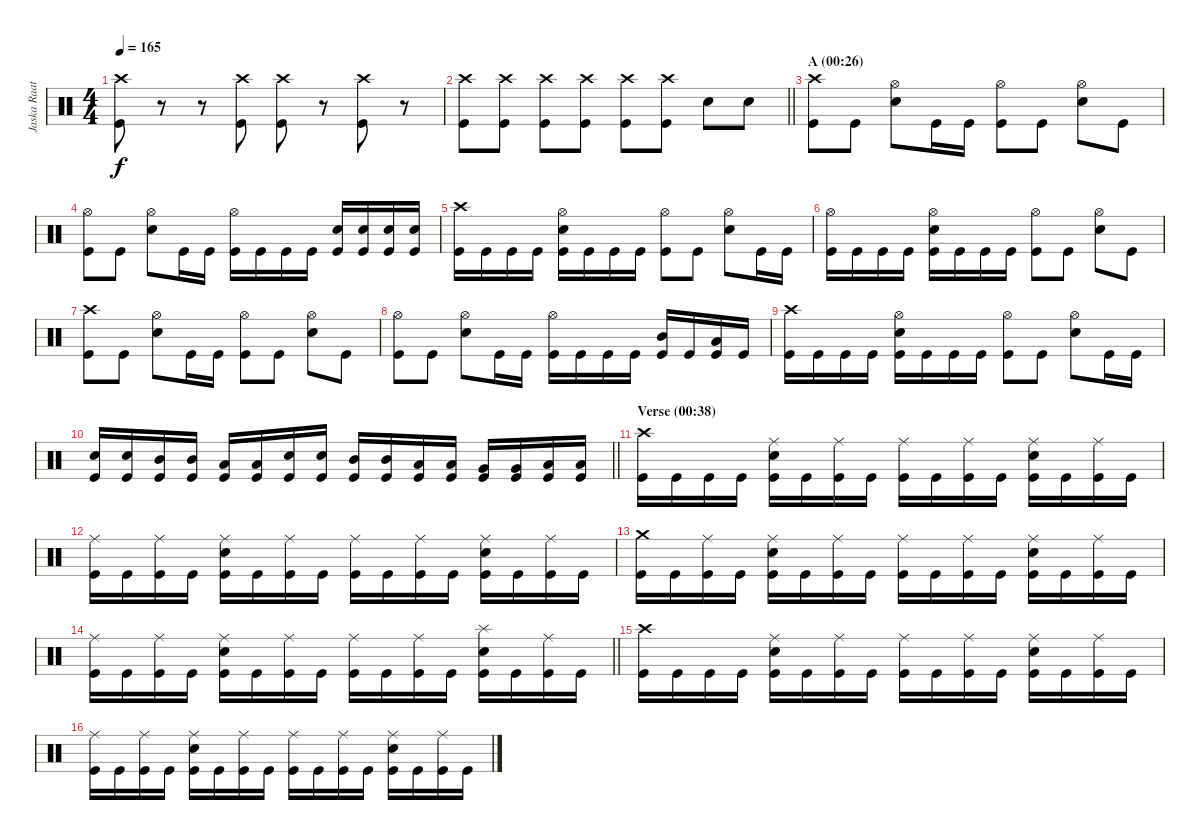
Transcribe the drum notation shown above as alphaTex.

\track ("Jaska Raatikainen" "Jaska Raat") {instrument percussion}
\staff {score}
\articulation defaults
\ts (4 4)
\tempo 165
\clef neutral
\ks c
("Crash high (hit)" "Kick (hit)").8{dy f} r.8 r.8 ("Crash high (hit)" "Kick (hit)").8 ("Crash high (hit)" "Kick (hit)").8 r.8 ("Crash high (hit)" "Kick (hit)").8 r.8 |
\barLineRight lightlight
("Crash high (hit)" "Kick (hit)").8 ("Crash high (hit)" "Kick (hit)").8 ("Crash high (hit)" "Kick (hit)").8 ("Crash high (hit)" "Kick (hit)").8 ("Crash high (hit)" "Kick (hit)").8 ("Crash high (hit)" "Kick (hit)").8 "Electric Snare (hit)".8 "Electric Snare (hit)".8 |
\section ("" "A (00:26)")
("Crash high (hit)" "Kick (hit)").8 "Kick (hit)".8 ("Hi-Hat (open)" "Electric Snare (hit)").8 "Kick (hit)".16 "Kick (hit)".16 ("Hi-Hat (open)" "Kick (hit)").8 "Kick (hit)".8 ("Hi-Hat (open)" "Electric Snare (hit)").8 "Kick (hit)".8 |
("Hi-Hat (open)" "Kick (hit)").8 "Kick (hit)".8 ("Hi-Hat (open)" "Electric Snare (hit)").8 "Kick (hit)".16 "Kick (hit)".16 ("Hi-Hat (open)" "Kick (hit)").16 "Kick (hit)".16 "Kick (hit)".16 "Kick (hit)".16 ("Electric Snare (hit)" "Kick (hit)").16 ("Electric Snare (hit)" "Kick (hit)").16 ("Electric Snare (hit)" "Kick (hit)").16 ("Electric Snare (hit)" "Kick (hit)").16 |
("Crash high (hit)" "Kick (hit)").16 "Kick (hit)".16 "Kick (hit)".16 "Kick (hit)".16 ("Hi-Hat (open)" "Electric Snare (hit)" "Kick (hit)").16 "Kick (hit)".16 "Kick (hit)".16 "Kick (hit)".16 ("Hi-Hat (open)" "Kick (hit)").8 "Kick (hit)".8 ("Hi-Hat (open)" "Electric Snare (hit)").8 "Kick (hit)".16 "Kick (hit)".16 |
("Hi-Hat (open)" "Kick (hit)").16 "Kick (hit)".16 "Kick (hit)".16 "Kick (hit)".16 ("Hi-Hat (open)" "Electric Snare (hit)" "Kick (hit)").16 "Kick (hit)".16 "Kick (hit)".16 "Kick (hit)".16 ("Hi-Hat (open)" "Kick (hit)").8 "Kick (hit)".8 ("Hi-Hat (open)" "Electric Snare (hit)").8 "Kick (hit)".8 |
("Crash high (hit)" "Kick (hit)").8 "Kick (hit)".8 ("Hi-Hat (open)" "Electric Snare (hit)").8 "Kick (hit)".16 "Kick (hit)".16 ("Hi-Hat (open)" "Kick (hit)").8 "Kick (hit)".8 ("Hi-Hat (open)" "Electric Snare (hit)").8 "Kick (hit)".8 |
("Hi-Hat (open)" "Kick (hit)").8 "Kick (hit)".8 ("Hi-Hat (open)" "Electric Snare (hit)").8 "Kick (hit)".16 "Kick (hit)".16 ("Hi-Hat (open)" "Kick (hit)").16 "Kick (hit)".16 "Kick (hit)".16 "Kick (hit)".16 ("Mid Tom (hit)" "Kick (hit)").16 "Kick (hit)".16 ("Low Tom (hit)" "Kick (hit)").16 "Kick (hit)".16 |
("Crash high (hit)" "Kick (hit)").16 "Kick (hit)".16 "Kick (hit)".16 "Kick (hit)".16 ("Hi-Hat (open)" "Electric Snare (hit)" "Kick (hit)").16 "Kick (hit)".16 "Kick (hit)".16 "Kick (hit)".16 ("Hi-Hat (open)" "Kick (hit)").8 "Kick (hit)".8 ("Hi-Hat (open)" "Electric Snare (hit)").8 "Kick (hit)".16 "Kick (hit)".16 |
\barLineRight lightlight
("Electric Snare (hit)" "Kick (hit)").16 ("Electric Snare (hit)" "Kick (hit)").16 ("Mid Tom (hit)" "Kick (hit)").16 ("Mid Tom (hit)" "Kick (hit)").16 ("Low Tom (hit)" "Kick (hit)").16 ("Low Tom (hit)" "Kick (hit)").16 ("Electric Snare (hit)" "Kick (hit)").16 ("Electric Snare (hit)" "Kick (hit)").16 ("Mid Tom (hit)" "Kick (hit)").16 ("Mid Tom (hit)" "Kick (hit)").16 ("Low Tom (hit)" "Kick (hit)").16 ("Low Tom (hit)" "Kick (hit)").16 ("Very Low Tom (hit)" "Kick (hit)").16 ("Very Low Tom (hit)" "Kick (hit)").16 ("Low Floor Tom (hit)" "Kick (hit)").16 ("Low Floor Tom (hit)" "Kick (hit)").16 |
\section ("" "Verse (00:38)")
("Crash high (hit)" "Kick (hit)").16 "Kick (hit)".16 "Kick (hit)".16 "Kick (hit)".16 ("Ride (middle)" "Electric Snare (hit)" "Kick (hit)").16 "Kick (hit)".16 ("Ride (middle)" "Kick (hit)").16 "Kick (hit)".16 ("Ride (middle)" "Kick (hit)").16 "Kick (hit)".16 ("Ride (middle)" "Kick (hit)").16 "Kick (hit)".16 ("Ride (middle)" "Electric Snare (hit)" "Kick (hit)").16 "Kick (hit)".16 ("Ride (middle)" "Kick (hit)").16 "Kick (hit)".16 |
("Ride (middle)" "Kick (hit)").16 "Kick (hit)".16 ("Ride (middle)" "Kick (hit)").16 "Kick (hit)".16 ("Ride (middle)" "Electric Snare (hit)" "Kick (hit)").16 "Kick (hit)".16 ("Ride (middle)" "Kick (hit)").16 "Kick (hit)".16 ("Ride (middle)" "Kick (hit)").16 "Kick (hit)".16 ("Ride (middle)" "Kick (hit)").16 "Kick (hit)".16 ("Ride (middle)" "Electric Snare (hit)" "Kick (hit)").16 "Kick (hit)".16 ("Ride (middle)" "Kick (hit)").16 "Kick (hit)".16 |
("Crash medium (hit)" "Kick (hit)").16 "Kick (hit)".16 ("Ride (middle)" "Kick (hit)").16 "Kick (hit)".16 ("Ride (middle)" "Electric Snare (hit)" "Kick (hit)").16 "Kick (hit)".16 ("Ride (middle)" "Kick (hit)").16 "Kick (hit)".16 ("Ride (middle)" "Kick (hit)").16 "Kick (hit)".16 ("Ride (middle)" "Kick (hit)").16 "Kick (hit)".16 ("Ride (middle)" "Electric Snare (hit)" "Kick (hit)").16 "Kick (hit)".16 ("Ride (middle)" "Kick (hit)").16 "Kick (hit)".16 |
\barLineRight lightlight
("Ride (middle)" "Kick (hit)").16 "Kick (hit)".16 ("Ride (middle)" "Kick (hit)").16 "Kick (hit)".16 ("Ride (middle)" "Electric Snare (hit)" "Kick (hit)").16 "Kick (hit)".16 ("Ride (middle)" "Kick (hit)").16 "Kick (hit)".16 ("Ride (middle)" "Kick (hit)").16 "Kick (hit)".16 ("Ride (middle)" "Kick (hit)").16 "Kick (hit)".16 ("Splash (hit)" "Electric Snare (hit)" "Kick (hit)").16 "Kick (hit)".16 ("Ride (middle)" "Kick (hit)").16 "Kick (hit)".16 |
("Crash high (hit)" "Kick (hit)").16 "Kick (hit)".16 "Kick (hit)".16 "Kick (hit)".16 ("Ride (middle)" "Electric Snare (hit)" "Kick (hit)").16 "Kick (hit)".16 ("Ride (middle)" "Kick (hit)").16 "Kick (hit)".16 ("Ride (middle)" "Kick (hit)").16 "Kick (hit)".16 ("Ride (middle)" "Kick (hit)").16 "Kick (hit)".16 ("Ride (middle)" "Electric Snare (hit)" "Kick (hit)").16 "Kick (hit)".16 ("Ride (middle)" "Kick (hit)").16 "Kick (hit)".16 |
("Ride (middle)" "Kick (hit)").16 "Kick (hit)".16 ("Ride (middle)" "Kick (hit)").16 "Kick (hit)".16 ("Ride (middle)" "Electric Snare (hit)" "Kick (hit)").16 "Kick (hit)".16 ("Ride (middle)" "Kick (hit)").16 "Kick (hit)".16 ("Ride (middle)" "Kick (hit)").16 "Kick (hit)".16 ("Ride (middle)" "Kick (hit)").16 "Kick (hit)".16 ("Ride (middle)" "Electric Snare (hit)" "Kick (hit)").16 "Kick (hit)".16 ("Ride (middle)" "Kick (hit)").16 "Kick (hit)".16
